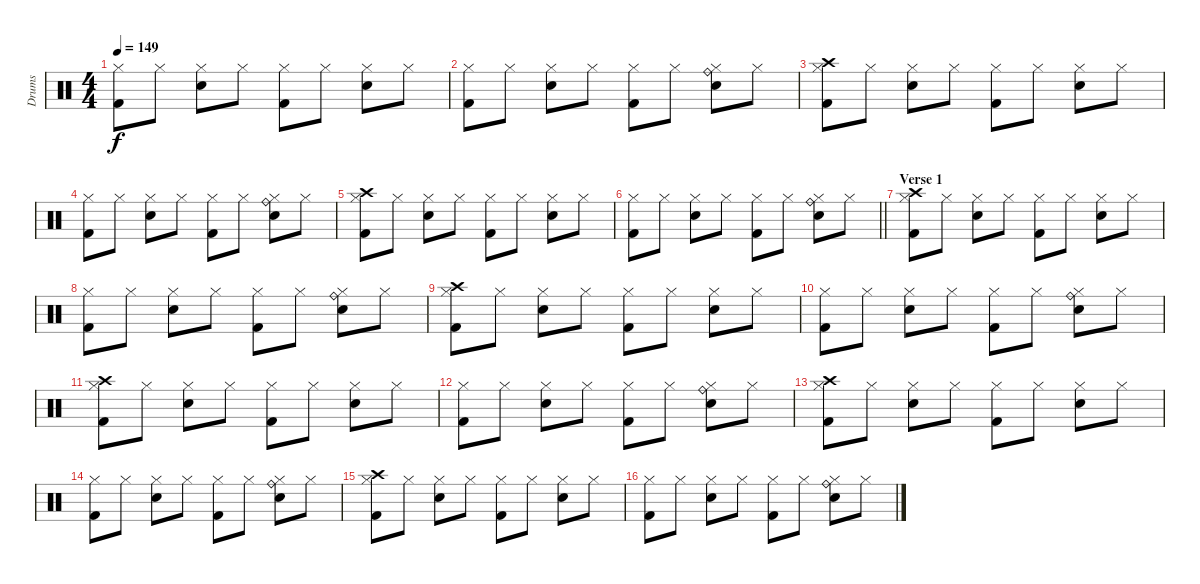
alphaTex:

\track ("Drums" "Drums") {instrument percussion}
\staff {score}
\articulation defaults
\ts (4 4)
\tempo 149
\clef neutral
\ks c
("Hi-Hat (closed)" "Kick (hit) 2").8{dy f} "Hi-Hat (closed)".8 ("Hi-Hat (closed)" "Electric Snare (hit)").8 "Hi-Hat (closed)".8 ("Hi-Hat (closed)" "Kick (hit) 2").8 "Hi-Hat (closed)".8 ("Hi-Hat (closed)" "Electric Snare (hit)").8 "Hi-Hat (closed)".8 |
("Hi-Hat (closed)" "Kick (hit) 2").8 "Hi-Hat (closed)".8 ("Hi-Hat (closed)" "Electric Snare (hit)").8 "Hi-Hat (closed)".8 ("Hi-Hat (closed)" "Kick (hit) 2").8 "Hi-Hat (closed)".8 ("Ride (bell)" "Hi-Hat (closed)" "Electric Snare (hit)").8 "Hi-Hat (closed)".8 |
("Hi-Hat (closed)" "Crash high (hit)" "Kick (hit) 2").8 "Hi-Hat (closed)".8 ("Hi-Hat (closed)" "Electric Snare (hit)").8 "Hi-Hat (closed)".8 ("Hi-Hat (closed)" "Kick (hit) 2").8 "Hi-Hat (closed)".8 ("Hi-Hat (closed)" "Electric Snare (hit)").8 "Hi-Hat (closed)".8 |
("Hi-Hat (closed)" "Kick (hit) 2").8 "Hi-Hat (closed)".8 ("Hi-Hat (closed)" "Electric Snare (hit)").8 "Hi-Hat (closed)".8 ("Hi-Hat (closed)" "Kick (hit) 2").8 "Hi-Hat (closed)".8 ("Ride (bell)" "Hi-Hat (closed)" "Electric Snare (hit)").8 "Hi-Hat (closed)".8 |
("Hi-Hat (closed)" "Crash high (hit)" "Kick (hit) 2").8 "Hi-Hat (closed)".8 ("Hi-Hat (closed)" "Electric Snare (hit)").8 "Hi-Hat (closed)".8 ("Hi-Hat (closed)" "Kick (hit) 2").8 "Hi-Hat (closed)".8 ("Hi-Hat (closed)" "Electric Snare (hit)").8 "Hi-Hat (closed)".8 |
\barLineRight lightlight
("Hi-Hat (closed)" "Kick (hit) 2").8 "Hi-Hat (closed)".8 ("Hi-Hat (closed)" "Electric Snare (hit)").8 "Hi-Hat (closed)".8 ("Hi-Hat (closed)" "Kick (hit) 2").8 "Hi-Hat (closed)".8 ("Ride (bell)" "Hi-Hat (closed)" "Electric Snare (hit)").8 "Hi-Hat (closed)".8 |
\section ("" "Verse 1")
("Hi-Hat (closed)" "Crash high (hit)" "Kick (hit) 2").8 "Hi-Hat (closed)".8 ("Hi-Hat (closed)" "Electric Snare (hit)").8 "Hi-Hat (closed)".8 ("Hi-Hat (closed)" "Kick (hit) 2").8 "Hi-Hat (closed)".8 ("Hi-Hat (closed)" "Electric Snare (hit)").8 "Hi-Hat (closed)".8 |
("Hi-Hat (closed)" "Kick (hit) 2").8 "Hi-Hat (closed)".8 ("Hi-Hat (closed)" "Electric Snare (hit)").8 "Hi-Hat (closed)".8 ("Hi-Hat (closed)" "Kick (hit) 2").8 "Hi-Hat (closed)".8 ("Ride (bell)" "Hi-Hat (closed)" "Electric Snare (hit)").8 "Hi-Hat (closed)".8 |
("Hi-Hat (closed)" "Crash high (hit)" "Kick (hit) 2").8 "Hi-Hat (closed)".8 ("Hi-Hat (closed)" "Electric Snare (hit)").8 "Hi-Hat (closed)".8 ("Hi-Hat (closed)" "Kick (hit) 2").8 "Hi-Hat (closed)".8 ("Hi-Hat (closed)" "Electric Snare (hit)").8 "Hi-Hat (closed)".8 |
("Hi-Hat (closed)" "Kick (hit) 2").8 "Hi-Hat (closed)".8 ("Hi-Hat (closed)" "Electric Snare (hit)").8 "Hi-Hat (closed)".8 ("Hi-Hat (closed)" "Kick (hit) 2").8 "Hi-Hat (closed)".8 ("Ride (bell)" "Hi-Hat (closed)" "Electric Snare (hit)").8 "Hi-Hat (closed)".8 |
("Hi-Hat (closed)" "Crash high (hit)" "Kick (hit) 2").8 "Hi-Hat (closed)".8 ("Hi-Hat (closed)" "Electric Snare (hit)").8 "Hi-Hat (closed)".8 ("Hi-Hat (closed)" "Kick (hit) 2").8 "Hi-Hat (closed)".8 ("Hi-Hat (closed)" "Electric Snare (hit)").8 "Hi-Hat (closed)".8 |
("Hi-Hat (closed)" "Kick (hit) 2").8 "Hi-Hat (closed)".8 ("Hi-Hat (closed)" "Electric Snare (hit)").8 "Hi-Hat (closed)".8 ("Hi-Hat (closed)" "Kick (hit) 2").8 "Hi-Hat (closed)".8 ("Ride (bell)" "Hi-Hat (closed)" "Electric Snare (hit)").8 "Hi-Hat (closed)".8 |
("Hi-Hat (closed)" "Crash high (hit)" "Kick (hit) 2").8 "Hi-Hat (closed)".8 ("Hi-Hat (closed)" "Electric Snare (hit)").8 "Hi-Hat (closed)".8 ("Hi-Hat (closed)" "Kick (hit) 2").8 "Hi-Hat (closed)".8 ("Hi-Hat (closed)" "Electric Snare (hit)").8 "Hi-Hat (closed)".8 |
("Hi-Hat (closed)" "Kick (hit) 2").8 "Hi-Hat (closed)".8 ("Hi-Hat (closed)" "Electric Snare (hit)").8 "Hi-Hat (closed)".8 ("Hi-Hat (closed)" "Kick (hit) 2").8 "Hi-Hat (closed)".8 ("Ride (bell)" "Hi-Hat (closed)" "Electric Snare (hit)").8 "Hi-Hat (closed)".8 |
("Hi-Hat (closed)" "Crash high (hit)" "Kick (hit) 2").8 "Hi-Hat (closed)".8 ("Hi-Hat (closed)" "Electric Snare (hit)").8 "Hi-Hat (closed)".8 ("Hi-Hat (closed)" "Kick (hit) 2").8 "Hi-Hat (closed)".8 ("Hi-Hat (closed)" "Electric Snare (hit)").8 "Hi-Hat (closed)".8 |
("Hi-Hat (closed)" "Kick (hit) 2").8 "Hi-Hat (closed)".8 ("Hi-Hat (closed)" "Electric Snare (hit)").8 "Hi-Hat (closed)".8 ("Hi-Hat (closed)" "Kick (hit) 2").8 "Hi-Hat (closed)".8 ("Ride (bell)" "Hi-Hat (closed)" "Electric Snare (hit)").8 "Hi-Hat (closed)".8
